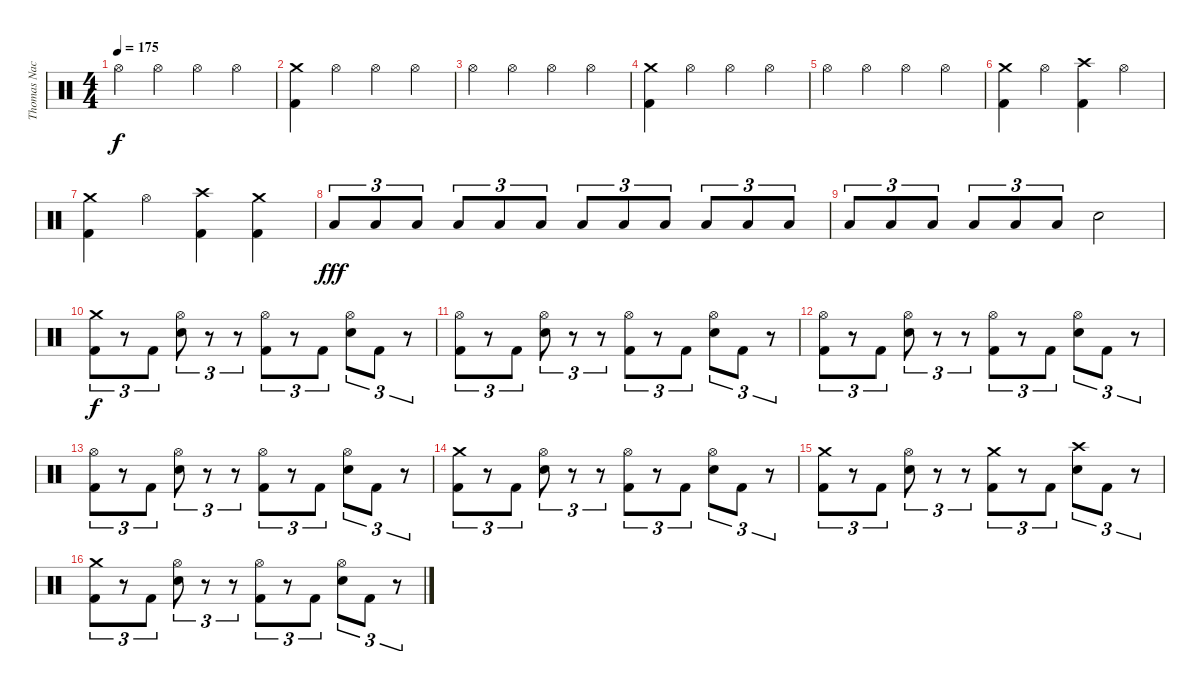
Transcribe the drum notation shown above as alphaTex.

\track ("Thomas Nack" "Thomas Nac") {instrument percussion}
\staff {score}
\articulation defaults
\ts (4 4)
\tempo 175
\clef neutral
\ks c "Hi-Hat (open)".4{dy f} "Hi-Hat (open)".4 "Hi-Hat (open)".4 "Hi-Hat (open)".4
|
("Crash medium (hit)" "Kick (hit) 2").4 "Hi-Hat (open)".4 "Hi-Hat (open)".4 "Hi-Hat (open)".4 |
"Hi-Hat (open)".4 "Hi-Hat (open)".4 "Hi-Hat (open)".4 "Hi-Hat (open)".4 |
("Crash medium (hit)" "Kick (hit) 2").4 "Hi-Hat (open)".4 "Hi-Hat (open)".4 "Hi-Hat (open)".4 |
"Hi-Hat (open)".4 "Hi-Hat (open)".4 "Hi-Hat (open)".4 "Hi-Hat (open)".4 |
("Crash medium (hit)" "Kick (hit) 2").4 "Hi-Hat (open)".4 ("Crash high (hit)" "Kick (hit) 2").4 "Hi-Hat (open)".4 |
("Crash medium (hit)" "Kick (hit) 2").4 "Hi-Hat (open)".4 ("Crash high (hit)" "Kick (hit) 2").4 ("Crash medium (hit)" "Kick (hit) 2").4 |
"Low Floor Tom (hit)".8{tu (3 2) dy fff} "Low Floor Tom (hit)".8{tu (3 2)} "Low Floor Tom (hit)".8{tu (3 2)} "Low Floor Tom (hit)".8{tu (3 2)} "Low Floor Tom (hit)".8{tu (3 2)} "Low Floor Tom (hit)".8{tu (3 2)} "Low Floor Tom (hit)".8{tu (3 2)} "Low Floor Tom (hit)".8{tu (3 2)} "Low Floor Tom (hit)".8{tu (3 2)} "Low Floor Tom (hit)".8{tu (3 2)} "Low Floor Tom (hit)".8{tu (3 2)} "Low Floor Tom (hit)".8{tu (3 2)} |
"Low Floor Tom (hit)".8{tu (3 2)} "Low Floor Tom (hit)".8{tu (3 2)} "Low Floor Tom (hit)".8{tu (3 2)} "Low Floor Tom (hit)".8{tu (3 2)} "Low Floor Tom (hit)".8{tu (3 2)} "Low Floor Tom (hit)".8{tu (3 2)} "Electric Snare (hit)".2 |
("Crash medium (hit)" "Kick (hit) 2").8{tu (3 2) dy f} r.8{tu (3 2)} "Kick (hit) 2".8{tu (3 2)} ("Hi-Hat (open)" "Electric Snare (hit)").8{tu (3 2)} r.8{tu (3 2)} r.8{tu (3 2)} ("Hi-Hat (open)" "Kick (hit) 2").8{tu (3 2)} r.8{tu (3 2)} "Kick (hit) 2".8{tu (3 2)} ("Hi-Hat (open)" "Electric Snare (hit)").8{tu (3 2)} "Kick (hit) 2".8{tu (3 2)} r.8{tu (3 2)} |
("Hi-Hat (open)" "Kick (hit) 2").8{tu (3 2)} r.8{tu (3 2)} "Kick (hit) 2".8{tu (3 2)} ("Hi-Hat (open)" "Electric Snare (hit)").8{tu (3 2)} r.8{tu (3 2)} r.8{tu (3 2)} ("Hi-Hat (open)" "Kick (hit) 2").8{tu (3 2)} r.8{tu (3 2)} "Kick (hit) 2".8{tu (3 2)} ("Hi-Hat (open)" "Electric Snare (hit)").8{tu (3 2)} "Kick (hit) 2".8{tu (3 2)} r.8{tu (3 2)} |
("Hi-Hat (open)" "Kick (hit) 2").8{tu (3 2)} r.8{tu (3 2)} "Kick (hit) 2".8{tu (3 2)} ("Hi-Hat (open)" "Electric Snare (hit)").8{tu (3 2)} r.8{tu (3 2)} r.8{tu (3 2)} ("Hi-Hat (open)" "Kick (hit) 2").8{tu (3 2)} r.8{tu (3 2)} "Kick (hit) 2".8{tu (3 2)} ("Hi-Hat (open)" "Electric Snare (hit)").8{tu (3 2)} "Kick (hit) 2".8{tu (3 2)} r.8{tu (3 2)} |
("Hi-Hat (open)" "Kick (hit) 2").8{tu (3 2)} r.8{tu (3 2)} "Kick (hit) 2".8{tu (3 2)} ("Hi-Hat (open)" "Electric Snare (hit)").8{tu (3 2)} r.8{tu (3 2)} r.8{tu (3 2)} ("Hi-Hat (open)" "Kick (hit) 2").8{tu (3 2)} r.8{tu (3 2)} "Kick (hit) 2".8{tu (3 2)} ("Hi-Hat (open)" "Electric Snare (hit)").8{tu (3 2)} "Kick (hit) 2".8{tu (3 2)} r.8{tu (3 2)} |
("Crash medium (hit)" "Kick (hit) 2").8{tu (3 2)} r.8{tu (3 2)} "Kick (hit) 2".8{tu (3 2)} ("Hi-Hat (open)" "Electric Snare (hit)").8{tu (3 2)} r.8{tu (3 2)} r.8{tu (3 2)} ("Hi-Hat (open)" "Kick (hit) 2").8{tu (3 2)} r.8{tu (3 2)} "Kick (hit) 2".8{tu (3 2)} ("Hi-Hat (open)" "Electric Snare (hit)").8{tu (3 2)} "Kick (hit) 2".8{tu (3 2)} r.8{tu (3 2)} |
("Crash medium (hit)" "Kick (hit) 2").8{tu (3 2)} r.8{tu (3 2)} "Kick (hit) 2".8{tu (3 2)} ("Hi-Hat (open)" "Electric Snare (hit)").8{tu (3 2)} r.8{tu (3 2)} r.8{tu (3 2)} ("Crash medium (hit)" "Kick (hit) 2").8{tu (3 2)} r.8{tu (3 2)} "Kick (hit) 2".8{tu (3 2)} ("Crash high (hit)" "Electric Snare (hit)").8{tu (3 2)} "Kick (hit) 2".8{tu (3 2)} r.8{tu (3 2)} |
("Crash medium (hit)" "Kick (hit) 2").8{tu (3 2)} r.8{tu (3 2)} "Kick (hit) 2".8{tu (3 2)} ("Hi-Hat (open)" "Electric Snare (hit)").8{tu (3 2)} r.8{tu (3 2)} r.8{tu (3 2)} ("Hi-Hat (open)" "Kick (hit) 2").8{tu (3 2)} r.8{tu (3 2)} "Kick (hit) 2".8{tu (3 2)} ("Hi-Hat (open)" "Electric Snare (hit)").8{tu (3 2)} "Kick (hit) 2".8{tu (3 2)} r.8{tu (3 2)}
